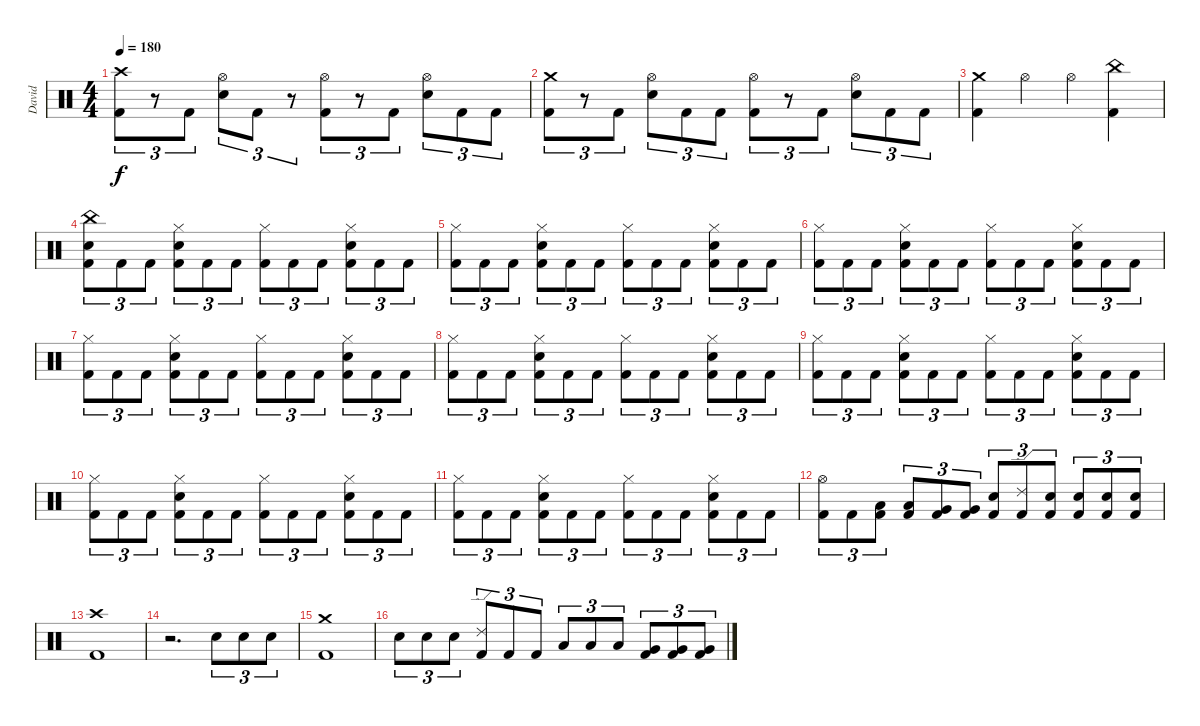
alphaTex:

\track ("David" "David") {instrument percussion}
\staff {score}
\articulation defaults
\ts (4 4)
\tempo 180
\clef neutral
\ks c
("Crash high (hit)" "Kick (hit) 2").8{tu (3 2) dy f} r.8{tu (3 2)} "Kick (hit) 2".8{tu (3 2)} ("Hi-Hat (open)" "Electric Snare (hit)").8{tu (3 2)} "Kick (hit) 2".8{tu (3 2)} r.8{tu (3 2)} ("Hi-Hat (open)" "Kick (hit) 2").8{tu (3 2)} r.8{tu (3 2)} "Kick (hit) 2".8{tu (3 2)} ("Hi-Hat (open)" "Electric Snare (hit)").8{tu (3 2)} "Kick (hit) 2".8{tu (3 2)} "Kick (hit) 2".8{tu (3 2)} |
("Crash medium (hit)" "Kick (hit) 2").8{tu (3 2)} r.8{tu (3 2)} "Kick (hit) 2".8{tu (3 2)} ("Hi-Hat (open)" "Electric Snare (hit)").8{tu (3 2)} "Kick (hit) 2".8{tu (3 2)} "Kick (hit) 2".8{tu (3 2)} ("Hi-Hat (open)" "Kick (hit) 2").8{tu (3 2)} r.8{tu (3 2)} "Kick (hit) 2".8{tu (3 2)} ("Hi-Hat (open)" "Electric Snare (hit)").8{tu (3 2)} "Kick (hit) 2".8{tu (3 2)} "Kick (hit) 2".8{tu (3 2)} |
("Crash medium (hit)" "Kick (hit) 2").4 "Hi-Hat (open)".4 "Hi-Hat (open)".4 ("China (hit)" "Kick (hit) 2").4 |
("China (hit)" "Electric Snare (hit)" "Kick (hit) 2").8{tu (3 2)} "Kick (hit) 2".8{tu (3 2)} "Kick (hit) 2".8{tu (3 2)} ("Hi-Hat (closed)" "Electric Snare (hit)" "Kick (hit) 2").8{tu (3 2)} "Kick (hit) 2".8{tu (3 2)} "Kick (hit) 2".8{tu (3 2)} ("Hi-Hat (closed)" "Kick (hit) 2").8{tu (3 2)} "Kick (hit) 2".8{tu (3 2)} "Kick (hit) 2".8{tu (3 2)} ("Hi-Hat (closed)" "Electric Snare (hit)" "Kick (hit) 2").8{tu (3 2)} "Kick (hit) 2".8{tu (3 2)} "Kick (hit) 2".8{tu (3 2)} |
("Hi-Hat (closed)" "Kick (hit) 2").8{tu (3 2)} "Kick (hit) 2".8{tu (3 2)} "Kick (hit) 2".8{tu (3 2)} ("Hi-Hat (closed)" "Electric Snare (hit)" "Kick (hit) 2").8{tu (3 2)} "Kick (hit) 2".8{tu (3 2)} "Kick (hit) 2".8{tu (3 2)} ("Hi-Hat (closed)" "Kick (hit) 2").8{tu (3 2)} "Kick (hit) 2".8{tu (3 2)} "Kick (hit) 2".8{tu (3 2)} ("Hi-Hat (closed)" "Electric Snare (hit)" "Kick (hit) 2").8{tu (3 2)} "Kick (hit) 2".8{tu (3 2)} "Kick (hit) 2".8{tu (3 2)} |
("Hi-Hat (closed)" "Kick (hit) 2").8{tu (3 2)} "Kick (hit) 2".8{tu (3 2)} "Kick (hit) 2".8{tu (3 2)} ("Hi-Hat (closed)" "Electric Snare (hit)" "Kick (hit) 2").8{tu (3 2)} "Kick (hit) 2".8{tu (3 2)} "Kick (hit) 2".8{tu (3 2)} ("Hi-Hat (closed)" "Kick (hit) 2").8{tu (3 2)} "Kick (hit) 2".8{tu (3 2)} "Kick (hit) 2".8{tu (3 2)} ("Hi-Hat (closed)" "Electric Snare (hit)" "Kick (hit) 2").8{tu (3 2)} "Kick (hit) 2".8{tu (3 2)} "Kick (hit) 2".8{tu (3 2)} |
("Hi-Hat (closed)" "Kick (hit) 2").8{tu (3 2)} "Kick (hit) 2".8{tu (3 2)} "Kick (hit) 2".8{tu (3 2)} ("Hi-Hat (closed)" "Electric Snare (hit)" "Kick (hit) 2").8{tu (3 2)} "Kick (hit) 2".8{tu (3 2)} "Kick (hit) 2".8{tu (3 2)} ("Hi-Hat (closed)" "Kick (hit) 2").8{tu (3 2)} "Kick (hit) 2".8{tu (3 2)} "Kick (hit) 2".8{tu (3 2)} ("Hi-Hat (closed)" "Electric Snare (hit)" "Kick (hit) 2").8{tu (3 2)} "Kick (hit) 2".8{tu (3 2)} "Kick (hit) 2".8{tu (3 2)} |
("Hi-Hat (closed)" "Kick (hit) 2").8{tu (3 2)} "Kick (hit) 2".8{tu (3 2)} "Kick (hit) 2".8{tu (3 2)} ("Hi-Hat (closed)" "Electric Snare (hit)" "Kick (hit) 2").8{tu (3 2)} "Kick (hit) 2".8{tu (3 2)} "Kick (hit) 2".8{tu (3 2)} ("Hi-Hat (closed)" "Kick (hit) 2").8{tu (3 2)} "Kick (hit) 2".8{tu (3 2)} "Kick (hit) 2".8{tu (3 2)} ("Hi-Hat (closed)" "Electric Snare (hit)" "Kick (hit) 2").8{tu (3 2)} "Kick (hit) 2".8{tu (3 2)} "Kick (hit) 2".8{tu (3 2)} |
("Hi-Hat (closed)" "Kick (hit) 2").8{tu (3 2)} "Kick (hit) 2".8{tu (3 2)} "Kick (hit) 2".8{tu (3 2)} ("Hi-Hat (closed)" "Electric Snare (hit)" "Kick (hit) 2").8{tu (3 2)} "Kick (hit) 2".8{tu (3 2)} "Kick (hit) 2".8{tu (3 2)} ("Hi-Hat (closed)" "Kick (hit) 2").8{tu (3 2)} "Kick (hit) 2".8{tu (3 2)} "Kick (hit) 2".8{tu (3 2)} ("Hi-Hat (closed)" "Electric Snare (hit)" "Kick (hit) 2").8{tu (3 2)} "Kick (hit) 2".8{tu (3 2)} "Kick (hit) 2".8{tu (3 2)} |
("Hi-Hat (closed)" "Kick (hit) 2").8{tu (3 2)} "Kick (hit) 2".8{tu (3 2)} "Kick (hit) 2".8{tu (3 2)} ("Hi-Hat (closed)" "Electric Snare (hit)" "Kick (hit) 2").8{tu (3 2)} "Kick (hit) 2".8{tu (3 2)} "Kick (hit) 2".8{tu (3 2)} ("Hi-Hat (closed)" "Kick (hit) 2").8{tu (3 2)} "Kick (hit) 2".8{tu (3 2)} "Kick (hit) 2".8{tu (3 2)} ("Hi-Hat (closed)" "Electric Snare (hit)" "Kick (hit) 2").8{tu (3 2)} "Kick (hit) 2".8{tu (3 2)} "Kick (hit) 2".8{tu (3 2)} |
("Hi-Hat (closed)" "Kick (hit) 2").8{tu (3 2)} "Kick (hit) 2".8{tu (3 2)} "Kick (hit) 2".8{tu (3 2)} ("Hi-Hat (closed)" "Electric Snare (hit)" "Kick (hit) 2").8{tu (3 2)} "Kick (hit) 2".8{tu (3 2)} "Kick (hit) 2".8{tu (3 2)} ("Hi-Hat (closed)" "Kick (hit) 2").8{tu (3 2)} "Kick (hit) 2".8{tu (3 2)} "Kick (hit) 2".8{tu (3 2)} ("Hi-Hat (closed)" "Electric Snare (hit)" "Kick (hit) 2").8{tu (3 2)} "Kick (hit) 2".8{tu (3 2)} "Kick (hit) 2".8{tu (3 2)} |
("Hi-Hat (open)" "Kick (hit) 2").8{tu (3 2)} "Kick (hit) 2".8{tu (3 2)} ("Low Tom (hit)" "Kick (hit) 2").8{tu (3 2)} ("Low Tom (hit)" "Kick (hit) 2").8{tu (3 2)} ("Very Low Tom (hit)" "Kick (hit) 2").8{tu (3 2)} ("Very Low Tom (hit)" "Kick (hit) 2").8{tu (3 2)} ("Electric Snare (hit)" "Kick (hit) 2").8{tu (3 2)} ("Ride (edge) 2" "Kick (hit) 2").8{tu (3 2)} ("Electric Snare (hit)" "Kick (hit) 2").8{tu (3 2)} ("Electric Snare (hit)" "Kick (hit) 2").8{tu (3 2)} ("Electric Snare (hit)" "Kick (hit) 2").8{tu (3 2)} ("Electric Snare (hit)" "Kick (hit) 2").8{tu (3 2)} |
("Crash high (hit)" "Kick (hit) 2").1 |
r.2{d} "Electric Snare (hit)".8{tu (3 2)} "Electric Snare (hit)".8{tu (3 2)} "Electric Snare (hit)".8{tu (3 2)} |
("Crash medium (hit)" "Kick (hit) 2").1 |
"Electric Snare (hit)".8{tu (3 2)} "Electric Snare (hit)".8{tu (3 2)} "Electric Snare (hit)".8{tu (3 2)} ("Ride (edge) 2" "Kick (hit) 2").8{tu (3 2)} "Kick (hit) 2".8{tu (3 2)} "Kick (hit) 2".8{tu (3 2)} "Low Tom (hit)".8{tu (3 2)} "Low Tom (hit)".8{tu (3 2)} "Low Tom (hit)".8{tu (3 2)} ("Very Low Tom (hit)" "Kick (hit) 2").8{tu (3 2)} ("Very Low Tom (hit)" "Kick (hit) 2").8{tu (3 2)} ("Very Low Tom (hit)" "Kick (hit) 2").8{tu (3 2)}
